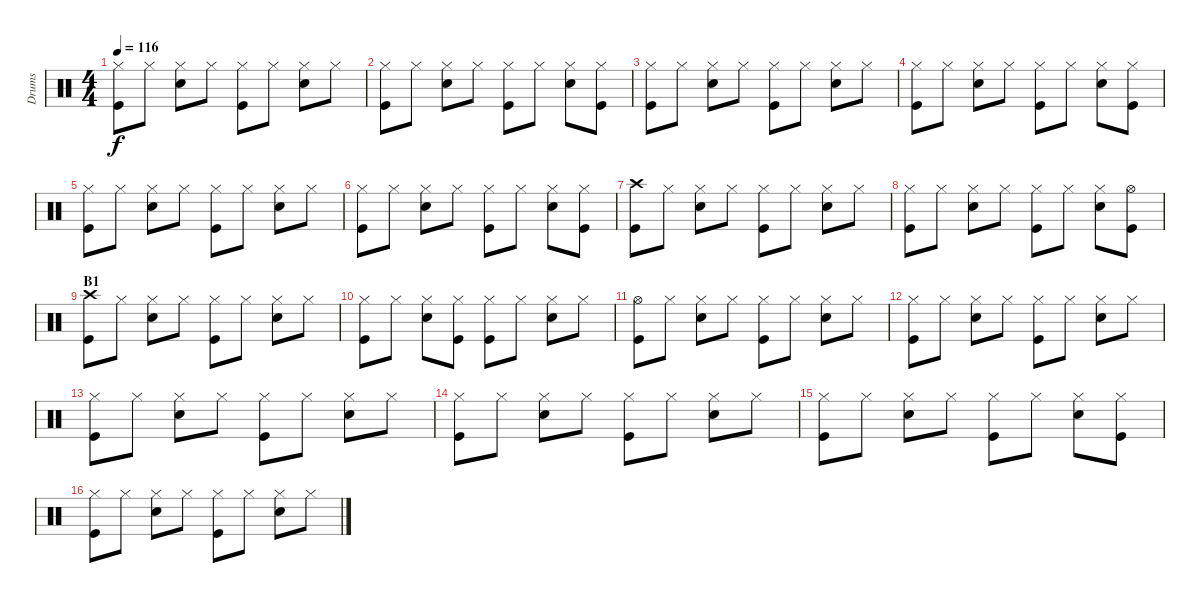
\track ("Drums" "Drums") {instrument percussion}
\staff {score}
\articulation defaults
\ts (4 4)
\tempo 116
\clef neutral
\ks c
("Hi-Hat (closed)" "Kick (hit)").8{dy f} "Hi-Hat (closed)".8 ("Hi-Hat (closed)" "Snare (hit) 2").8 "Hi-Hat (closed)".8 ("Hi-Hat (closed)" "Kick (hit)").8 "Hi-Hat (closed)".8 ("Hi-Hat (closed)" "Snare (hit) 2").8 "Hi-Hat (closed)".8 |
("Hi-Hat (closed)" "Kick (hit)").8 "Hi-Hat (closed)".8 ("Hi-Hat (closed)" "Snare (hit) 2").8 "Hi-Hat (closed)".8 ("Hi-Hat (closed)" "Kick (hit)").8 "Hi-Hat (closed)".8 ("Hi-Hat (closed)" "Snare (hit) 2").8 ("Hi-Hat (closed)" "Kick (hit)").8 |
("Hi-Hat (closed)" "Kick (hit)").8 "Hi-Hat (closed)".8 ("Hi-Hat (closed)" "Snare (hit) 2").8 "Hi-Hat (closed)".8 ("Hi-Hat (closed)" "Kick (hit)").8 "Hi-Hat (closed)".8 ("Hi-Hat (closed)" "Snare (hit) 2").8 "Hi-Hat (closed)".8 |
("Hi-Hat (closed)" "Kick (hit)").8 "Hi-Hat (closed)".8 ("Hi-Hat (closed)" "Snare (hit) 2").8 "Hi-Hat (closed)".8 ("Hi-Hat (closed)" "Kick (hit)").8 "Hi-Hat (closed)".8 ("Hi-Hat (closed)" "Snare (hit) 2").8 ("Hi-Hat (closed)" "Kick (hit)").8 |
("Hi-Hat (closed)" "Kick (hit)").8 "Hi-Hat (closed)".8 ("Hi-Hat (closed)" "Snare (hit) 2").8 "Hi-Hat (closed)".8 ("Hi-Hat (closed)" "Kick (hit)").8 "Hi-Hat (closed)".8 ("Hi-Hat (closed)" "Snare (hit) 2").8 "Hi-Hat (closed)".8 |
("Hi-Hat (closed)" "Kick (hit)").8 "Hi-Hat (closed)".8 ("Hi-Hat (closed)" "Snare (hit) 2").8 "Hi-Hat (closed)".8 ("Hi-Hat (closed)" "Kick (hit)").8 "Hi-Hat (closed)".8 ("Hi-Hat (closed)" "Snare (hit) 2").8 ("Hi-Hat (closed)" "Kick (hit)").8 |
("Crash high (hit)" "Kick (hit)").8 "Hi-Hat (closed)".8 ("Hi-Hat (closed)" "Snare (hit) 2").8 "Hi-Hat (closed)".8 ("Hi-Hat (closed)" "Kick (hit)").8 "Hi-Hat (closed)".8 ("Hi-Hat (closed)" "Snare (hit) 2").8 "Hi-Hat (closed)".8 |
("Hi-Hat (closed)" "Kick (hit)").8 "Hi-Hat (closed)".8 ("Hi-Hat (closed)" "Snare (hit) 2").8 "Hi-Hat (closed)".8 ("Hi-Hat (closed)" "Kick (hit)").8 "Hi-Hat (closed)".8 ("Hi-Hat (closed)" "Snare (hit) 2").8 ("Hi-Hat (open)" "Kick (hit)").8 |
\section ("" "B1")
("Crash high (hit)" "Kick (hit)").8 "Hi-Hat (closed)".8 ("Hi-Hat (closed)" "Snare (hit) 2").8 "Hi-Hat (closed)".8 ("Hi-Hat (closed)" "Kick (hit)").8 "Hi-Hat (closed)".8 ("Hi-Hat (closed)" "Snare (hit) 2").8 "Hi-Hat (closed)".8 |
("Hi-Hat (closed)" "Kick (hit)").8 "Hi-Hat (closed)".8 ("Hi-Hat (closed)" "Snare (hit) 2").8 ("Hi-Hat (closed)" "Kick (hit)").8 ("Hi-Hat (closed)" "Kick (hit)").8 "Hi-Hat (closed)".8 ("Hi-Hat (closed)" "Snare (hit) 2").8 "Hi-Hat (closed)".8 |
("Hi-Hat (open)" "Kick (hit)").8 "Hi-Hat (closed)".8 ("Hi-Hat (closed)" "Snare (hit) 2").8 "Hi-Hat (closed)".8 ("Hi-Hat (closed)" "Kick (hit)").8 "Hi-Hat (closed)".8 ("Hi-Hat (closed)" "Snare (hit) 2").8 "Hi-Hat (closed)".8 |
("Hi-Hat (closed)" "Kick (hit)").8 "Hi-Hat (closed)".8 ("Hi-Hat (closed)" "Snare (hit) 2").8 "Hi-Hat (closed)".8 ("Hi-Hat (closed)" "Kick (hit)").8 "Hi-Hat (closed)".8 ("Hi-Hat (closed)" "Snare (hit) 2").8 "Hi-Hat (closed)".8 |
("Hi-Hat (closed)" "Kick (hit)").8 "Hi-Hat (closed)".8 ("Hi-Hat (closed)" "Snare (hit) 2").8 "Hi-Hat (closed)".8 ("Hi-Hat (closed)" "Kick (hit)").8 "Hi-Hat (closed)".8 ("Hi-Hat (closed)" "Snare (hit) 2").8 "Hi-Hat (closed)".8 |
("Hi-Hat (closed)" "Kick (hit)").8 "Hi-Hat (closed)".8 ("Hi-Hat (closed)" "Snare (hit) 2").8 "Hi-Hat (closed)".8 ("Hi-Hat (closed)" "Kick (hit)").8 "Hi-Hat (closed)".8 ("Hi-Hat (closed)" "Snare (hit) 2").8 "Hi-Hat (closed)".8 |
("Hi-Hat (closed)" "Kick (hit)").8 "Hi-Hat (closed)".8 ("Hi-Hat (closed)" "Snare (hit) 2").8 "Hi-Hat (closed)".8 ("Hi-Hat (closed)" "Kick (hit)").8 "Hi-Hat (closed)".8 ("Hi-Hat (closed)" "Snare (hit) 2").8 ("Hi-Hat (closed)" "Kick (hit)").8 |
("Hi-Hat (closed)" "Kick (hit)").8 "Hi-Hat (closed)".8 ("Hi-Hat (closed)" "Snare (hit) 2").8 "Hi-Hat (closed)".8 ("Hi-Hat (closed)" "Kick (hit)").8 "Hi-Hat (closed)".8 ("Hi-Hat (closed)" "Snare (hit) 2").8 "Hi-Hat (closed)".8
